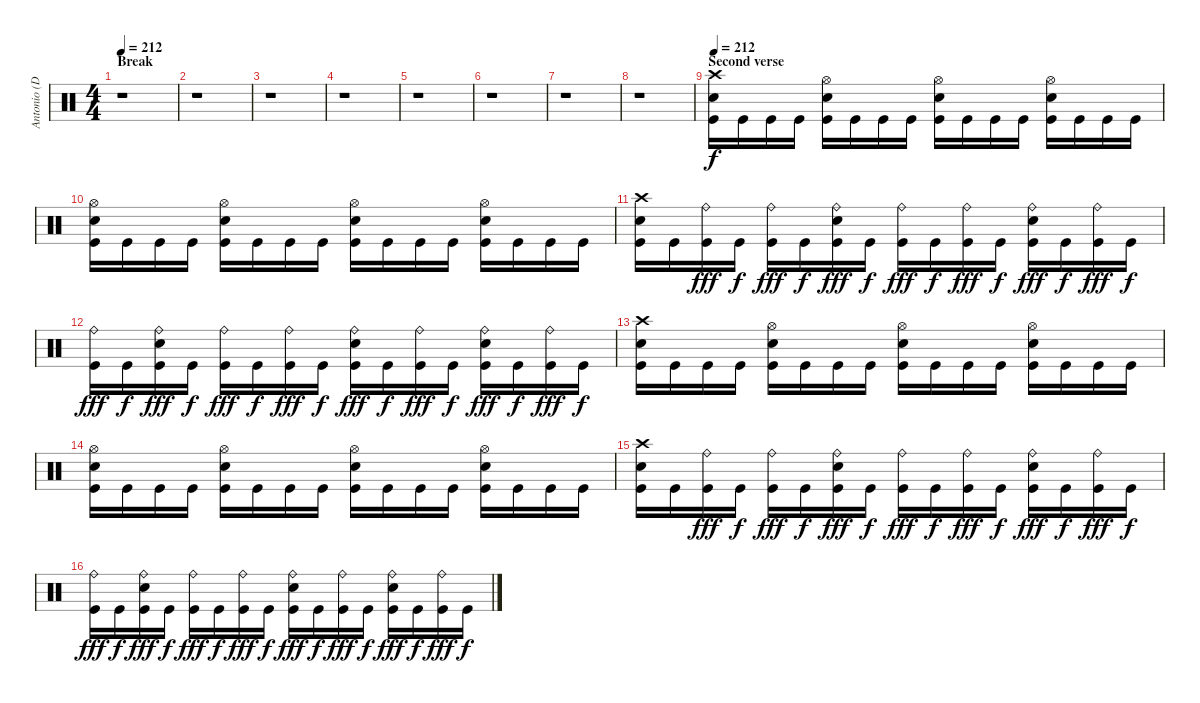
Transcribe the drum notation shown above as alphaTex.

\track ("Antonio (Drums)" "Antonio (D") {instrument percussion}
\staff {score}
\articulation defaults
\ts (4 4)
\section ("" "Break")
\tempo 212
\clef neutral
\ks c
r.1{dy f} |
r.1 |
r.1 |
r.1 |
r.1 |
r.1 |
r.1 |
r.1 |
\section ("" "Second verse")
\tempo 212
("Crash high (hit)" "Electric Snare (hit)" "Kick (hit)").16 "Kick (hit)".16 "Kick (hit)".16 "Kick (hit)".16 ("Hi-Hat (open)" "Electric Snare (hit)" "Kick (hit)").16 "Kick (hit)".16 "Kick (hit)".16 "Kick (hit)".16 ("Hi-Hat (open)" "Electric Snare (hit)" "Kick (hit)").16 "Kick (hit)".16 "Kick (hit)".16 "Kick (hit)".16 ("Hi-Hat (open)" "Electric Snare (hit)" "Kick (hit)").16 "Kick (hit)".16 "Kick (hit)".16 "Kick (hit)".16 |
("Hi-Hat (open)" "Electric Snare (hit)" "Kick (hit)").16 "Kick (hit)".16 "Kick (hit)".16 "Kick (hit)".16 ("Hi-Hat (open)" "Electric Snare (hit)" "Kick (hit)").16 "Kick (hit)".16 "Kick (hit)".16 "Kick (hit)".16 ("Hi-Hat (open)" "Electric Snare (hit)" "Kick (hit)").16 "Kick (hit)".16 "Kick (hit)".16 "Kick (hit)".16 ("Hi-Hat (open)" "Electric Snare (hit)" "Kick (hit)").16 "Kick (hit)".16 "Kick (hit)".16 "Kick (hit)".16 |
("Crash high (hit)" "Electric Snare (hit)" "Kick (hit)").16 "Kick (hit)".16 ("Ride (bell)" "Kick (hit)").16{dy fff} "Kick (hit)".16{dy f} ("Ride (bell)" "Kick (hit)").16{dy fff} "Kick (hit)".16{dy f} ("Ride (bell)" "Electric Snare (hit)" "Kick (hit)").16{dy fff} "Kick (hit)".16{dy f} ("Ride (bell)" "Kick (hit)").16{dy fff} "Kick (hit)".16{dy f} ("Ride (bell)" "Kick (hit)").16{dy fff} "Kick (hit)".16{dy f} ("Ride (bell)" "Electric Snare (hit)" "Kick (hit)").16{dy fff} "Kick (hit)".16{dy f} ("Ride (bell)" "Kick (hit)").16{dy fff} "Kick (hit)".16{dy f} |
("Ride (bell)" "Kick (hit)").16{dy fff} "Kick (hit)".16{dy f} ("Ride (bell)" "Electric Snare (hit)" "Kick (hit)").16{dy fff} "Kick (hit)".16{dy f} ("Ride (bell)" "Kick (hit)").16{dy fff} "Kick (hit)".16{dy f} ("Ride (bell)" "Kick (hit)").16{dy fff} "Kick (hit)".16{dy f} ("Ride (bell)" "Electric Snare (hit)" "Kick (hit)").16{dy fff} "Kick (hit)".16{dy f} ("Ride (bell)" "Kick (hit)").16{dy fff} "Kick (hit)".16{dy f} ("Ride (bell)" "Electric Snare (hit)" "Kick (hit)").16{dy fff} "Kick (hit)".16{dy f} ("Ride (bell)" "Kick (hit)").16{dy fff} "Kick (hit)".16{dy f} |
("Crash high (hit)" "Electric Snare (hit)" "Kick (hit)").16 "Kick (hit)".16 "Kick (hit)".16 "Kick (hit)".16 ("Hi-Hat (open)" "Electric Snare (hit)" "Kick (hit)").16 "Kick (hit)".16 "Kick (hit)".16 "Kick (hit)".16 ("Hi-Hat (open)" "Electric Snare (hit)" "Kick (hit)").16 "Kick (hit)".16 "Kick (hit)".16 "Kick (hit)".16 ("Hi-Hat (open)" "Electric Snare (hit)" "Kick (hit)").16 "Kick (hit)".16 "Kick (hit)".16 "Kick (hit)".16 |
("Hi-Hat (open)" "Electric Snare (hit)" "Kick (hit)").16 "Kick (hit)".16 "Kick (hit)".16 "Kick (hit)".16 ("Hi-Hat (open)" "Electric Snare (hit)" "Kick (hit)").16 "Kick (hit)".16 "Kick (hit)".16 "Kick (hit)".16 ("Hi-Hat (open)" "Electric Snare (hit)" "Kick (hit)").16 "Kick (hit)".16 "Kick (hit)".16 "Kick (hit)".16 ("Hi-Hat (open)" "Electric Snare (hit)" "Kick (hit)").16 "Kick (hit)".16 "Kick (hit)".16 "Kick (hit)".16 |
("Crash high (hit)" "Electric Snare (hit)" "Kick (hit)").16 "Kick (hit)".16 ("Ride (bell)" "Kick (hit)").16{dy fff} "Kick (hit)".16{dy f} ("Ride (bell)" "Kick (hit)").16{dy fff} "Kick (hit)".16{dy f} ("Ride (bell)" "Electric Snare (hit)" "Kick (hit)").16{dy fff} "Kick (hit)".16{dy f} ("Ride (bell)" "Kick (hit)").16{dy fff} "Kick (hit)".16{dy f} ("Ride (bell)" "Kick (hit)").16{dy fff} "Kick (hit)".16{dy f} ("Ride (bell)" "Electric Snare (hit)" "Kick (hit)").16{dy fff} "Kick (hit)".16{dy f} ("Ride (bell)" "Kick (hit)").16{dy fff} "Kick (hit)".16{dy f} |
("Ride (bell)" "Kick (hit)").16{dy fff} "Kick (hit)".16{dy f} ("Ride (bell)" "Electric Snare (hit)" "Kick (hit)").16{dy fff} "Kick (hit)".16{dy f} ("Ride (bell)" "Kick (hit)").16{dy fff} "Kick (hit)".16{dy f} ("Ride (bell)" "Kick (hit)").16{dy fff} "Kick (hit)".16{dy f} ("Ride (bell)" "Electric Snare (hit)" "Kick (hit)").16{dy fff} "Kick (hit)".16{dy f} ("Ride (bell)" "Kick (hit)").16{dy fff} "Kick (hit)".16{dy f} ("Ride (bell)" "Electric Snare (hit)" "Kick (hit)").16{dy fff} "Kick (hit)".16{dy f} ("Ride (bell)" "Kick (hit)").16{dy fff} "Kick (hit)".16{dy f}
